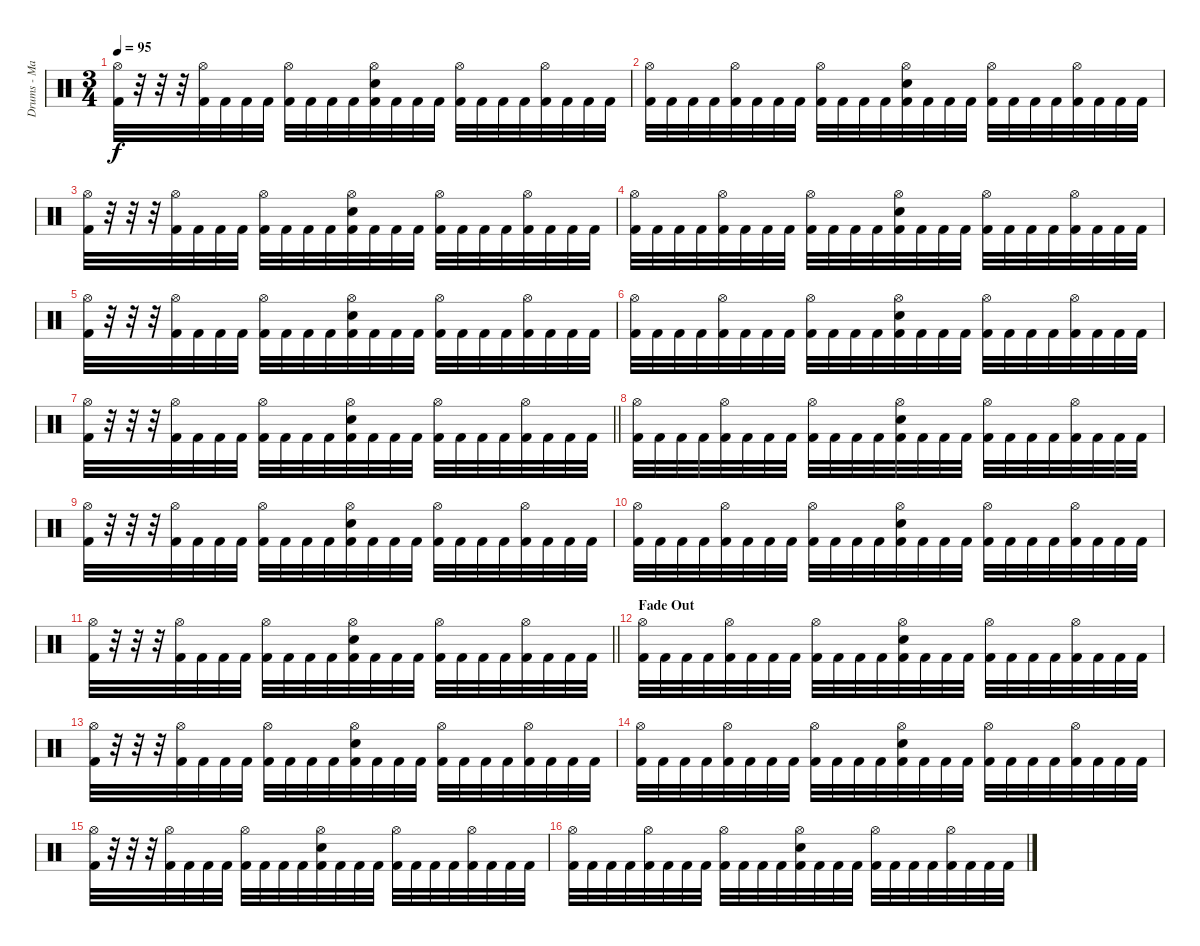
\track ("Drums - Mario Duplantier" "Drums - Ma") {instrument percussion}
\staff {score}
\articulation defaults
\ts (3 4)
\tempo 95
\clef neutral
\ks c
("Hi-Hat (open)" "Kick (hit) 2").32{dy f} r.32 r.32 r.32 ("Hi-Hat (open)" "Kick (hit) 2").32 "Kick (hit) 2".32 "Kick (hit) 2".32 "Kick (hit) 2".32 ("Hi-Hat (open)" "Kick (hit) 2").32 "Kick (hit) 2".32 "Kick (hit) 2".32 "Kick (hit) 2".32 ("Hi-Hat (open)" "Electric Snare (hit)" "Kick (hit) 2").32 "Kick (hit) 2".32 "Kick (hit) 2".32 "Kick (hit) 2".32 ("Hi-Hat (open)" "Kick (hit) 2").32 "Kick (hit) 2".32 "Kick (hit) 2".32 "Kick (hit) 2".32 ("Hi-Hat (open)" "Kick (hit) 2").32 "Kick (hit) 2".32 "Kick (hit) 2".32 "Kick (hit) 2".32 |
("Hi-Hat (open)" "Kick (hit) 2").32 "Kick (hit) 2".32 "Kick (hit) 2".32 "Kick (hit) 2".32 ("Hi-Hat (open)" "Kick (hit) 2").32 "Kick (hit) 2".32 "Kick (hit) 2".32 "Kick (hit) 2".32 ("Hi-Hat (open)" "Kick (hit) 2").32 "Kick (hit) 2".32 "Kick (hit) 2".32 "Kick (hit) 2".32 ("Hi-Hat (open)" "Electric Snare (hit)" "Kick (hit) 2").32 "Kick (hit) 2".32 "Kick (hit) 2".32 "Kick (hit) 2".32 ("Hi-Hat (open)" "Kick (hit) 2").32 "Kick (hit) 2".32 "Kick (hit) 2".32 "Kick (hit) 2".32 ("Hi-Hat (open)" "Kick (hit) 2").32 "Kick (hit) 2".32 "Kick (hit) 2".32 "Kick (hit) 2".32 |
("Hi-Hat (open)" "Kick (hit) 2").32 r.32 r.32 r.32 ("Hi-Hat (open)" "Kick (hit) 2").32 "Kick (hit) 2".32 "Kick (hit) 2".32 "Kick (hit) 2".32 ("Hi-Hat (open)" "Kick (hit) 2").32 "Kick (hit) 2".32 "Kick (hit) 2".32 "Kick (hit) 2".32 ("Hi-Hat (open)" "Electric Snare (hit)" "Kick (hit) 2").32 "Kick (hit) 2".32 "Kick (hit) 2".32 "Kick (hit) 2".32 ("Hi-Hat (open)" "Kick (hit) 2").32 "Kick (hit) 2".32 "Kick (hit) 2".32 "Kick (hit) 2".32 ("Hi-Hat (open)" "Kick (hit) 2").32 "Kick (hit) 2".32 "Kick (hit) 2".32 "Kick (hit) 2".32 |
("Hi-Hat (open)" "Kick (hit) 2").32 "Kick (hit) 2".32 "Kick (hit) 2".32 "Kick (hit) 2".32 ("Hi-Hat (open)" "Kick (hit) 2").32 "Kick (hit) 2".32 "Kick (hit) 2".32 "Kick (hit) 2".32 ("Hi-Hat (open)" "Kick (hit) 2").32 "Kick (hit) 2".32 "Kick (hit) 2".32 "Kick (hit) 2".32 ("Hi-Hat (open)" "Electric Snare (hit)" "Kick (hit) 2").32 "Kick (hit) 2".32 "Kick (hit) 2".32 "Kick (hit) 2".32 ("Hi-Hat (open)" "Kick (hit) 2").32 "Kick (hit) 2".32 "Kick (hit) 2".32 "Kick (hit) 2".32 ("Hi-Hat (open)" "Kick (hit) 2").32 "Kick (hit) 2".32 "Kick (hit) 2".32 "Kick (hit) 2".32 |
("Hi-Hat (open)" "Kick (hit) 2").32 r.32 r.32 r.32 ("Hi-Hat (open)" "Kick (hit) 2").32 "Kick (hit) 2".32 "Kick (hit) 2".32 "Kick (hit) 2".32 ("Hi-Hat (open)" "Kick (hit) 2").32 "Kick (hit) 2".32 "Kick (hit) 2".32 "Kick (hit) 2".32 ("Hi-Hat (open)" "Electric Snare (hit)" "Kick (hit) 2").32 "Kick (hit) 2".32 "Kick (hit) 2".32 "Kick (hit) 2".32 ("Hi-Hat (open)" "Kick (hit) 2").32 "Kick (hit) 2".32 "Kick (hit) 2".32 "Kick (hit) 2".32 ("Hi-Hat (open)" "Kick (hit) 2").32 "Kick (hit) 2".32 "Kick (hit) 2".32 "Kick (hit) 2".32 |
("Hi-Hat (open)" "Kick (hit) 2").32 "Kick (hit) 2".32 "Kick (hit) 2".32 "Kick (hit) 2".32 ("Hi-Hat (open)" "Kick (hit) 2").32 "Kick (hit) 2".32 "Kick (hit) 2".32 "Kick (hit) 2".32 ("Hi-Hat (open)" "Kick (hit) 2").32 "Kick (hit) 2".32 "Kick (hit) 2".32 "Kick (hit) 2".32 ("Hi-Hat (open)" "Electric Snare (hit)" "Kick (hit) 2").32 "Kick (hit) 2".32 "Kick (hit) 2".32 "Kick (hit) 2".32 ("Hi-Hat (open)" "Kick (hit) 2").32 "Kick (hit) 2".32 "Kick (hit) 2".32 "Kick (hit) 2".32 ("Hi-Hat (open)" "Kick (hit) 2").32 "Kick (hit) 2".32 "Kick (hit) 2".32 "Kick (hit) 2".32 |
\barLineRight lightlight
("Hi-Hat (open)" "Kick (hit) 2").32 r.32 r.32 r.32 ("Hi-Hat (open)" "Kick (hit) 2").32 "Kick (hit) 2".32 "Kick (hit) 2".32 "Kick (hit) 2".32 ("Hi-Hat (open)" "Kick (hit) 2").32 "Kick (hit) 2".32 "Kick (hit) 2".32 "Kick (hit) 2".32 ("Hi-Hat (open)" "Electric Snare (hit)" "Kick (hit) 2").32 "Kick (hit) 2".32 "Kick (hit) 2".32 "Kick (hit) 2".32 ("Hi-Hat (open)" "Kick (hit) 2").32 "Kick (hit) 2".32 "Kick (hit) 2".32 "Kick (hit) 2".32 ("Hi-Hat (open)" "Kick (hit) 2").32 "Kick (hit) 2".32 "Kick (hit) 2".32 "Kick (hit) 2".32 |
("Hi-Hat (open)" "Kick (hit) 2").32 "Kick (hit) 2".32 "Kick (hit) 2".32 "Kick (hit) 2".32 ("Hi-Hat (open)" "Kick (hit) 2").32 "Kick (hit) 2".32 "Kick (hit) 2".32 "Kick (hit) 2".32 ("Hi-Hat (open)" "Kick (hit) 2").32 "Kick (hit) 2".32 "Kick (hit) 2".32 "Kick (hit) 2".32 ("Hi-Hat (open)" "Electric Snare (hit)" "Kick (hit) 2").32 "Kick (hit) 2".32 "Kick (hit) 2".32 "Kick (hit) 2".32 ("Hi-Hat (open)" "Kick (hit) 2").32 "Kick (hit) 2".32 "Kick (hit) 2".32 "Kick (hit) 2".32 ("Hi-Hat (open)" "Kick (hit) 2").32 "Kick (hit) 2".32 "Kick (hit) 2".32 "Kick (hit) 2".32 |
("Hi-Hat (open)" "Kick (hit) 2").32 r.32 r.32 r.32 ("Hi-Hat (open)" "Kick (hit) 2").32 "Kick (hit) 2".32 "Kick (hit) 2".32 "Kick (hit) 2".32 ("Hi-Hat (open)" "Kick (hit) 2").32 "Kick (hit) 2".32 "Kick (hit) 2".32 "Kick (hit) 2".32 ("Hi-Hat (open)" "Electric Snare (hit)" "Kick (hit) 2").32 "Kick (hit) 2".32 "Kick (hit) 2".32 "Kick (hit) 2".32 ("Hi-Hat (open)" "Kick (hit) 2").32 "Kick (hit) 2".32 "Kick (hit) 2".32 "Kick (hit) 2".32 ("Hi-Hat (open)" "Kick (hit) 2").32 "Kick (hit) 2".32 "Kick (hit) 2".32 "Kick (hit) 2".32 |
("Hi-Hat (open)" "Kick (hit) 2").32 "Kick (hit) 2".32 "Kick (hit) 2".32 "Kick (hit) 2".32 ("Hi-Hat (open)" "Kick (hit) 2").32 "Kick (hit) 2".32 "Kick (hit) 2".32 "Kick (hit) 2".32 ("Hi-Hat (open)" "Kick (hit) 2").32 "Kick (hit) 2".32 "Kick (hit) 2".32 "Kick (hit) 2".32 ("Hi-Hat (open)" "Electric Snare (hit)" "Kick (hit) 2").32 "Kick (hit) 2".32 "Kick (hit) 2".32 "Kick (hit) 2".32 ("Hi-Hat (open)" "Kick (hit) 2").32 "Kick (hit) 2".32 "Kick (hit) 2".32 "Kick (hit) 2".32 ("Hi-Hat (open)" "Kick (hit) 2").32 "Kick (hit) 2".32 "Kick (hit) 2".32 "Kick (hit) 2".32 |
\barLineRight lightlight
("Hi-Hat (open)" "Kick (hit) 2").32 r.32 r.32 r.32 ("Hi-Hat (open)" "Kick (hit) 2").32 "Kick (hit) 2".32 "Kick (hit) 2".32 "Kick (hit) 2".32 ("Hi-Hat (open)" "Kick (hit) 2").32 "Kick (hit) 2".32 "Kick (hit) 2".32 "Kick (hit) 2".32 ("Hi-Hat (open)" "Electric Snare (hit)" "Kick (hit) 2").32 "Kick (hit) 2".32 "Kick (hit) 2".32 "Kick (hit) 2".32 ("Hi-Hat (open)" "Kick (hit) 2").32 "Kick (hit) 2".32 "Kick (hit) 2".32 "Kick (hit) 2".32 ("Hi-Hat (open)" "Kick (hit) 2").32 "Kick (hit) 2".32 "Kick (hit) 2".32 "Kick (hit) 2".32 |
\section ("" "Fade Out")
("Hi-Hat (open)" "Kick (hit) 2").32{volume 0} "Kick (hit) 2".32 "Kick (hit) 2".32 "Kick (hit) 2".32 ("Hi-Hat (open)" "Kick (hit) 2").32 "Kick (hit) 2".32 "Kick (hit) 2".32 "Kick (hit) 2".32 ("Hi-Hat (open)" "Kick (hit) 2").32 "Kick (hit) 2".32 "Kick (hit) 2".32 "Kick (hit) 2".32 ("Hi-Hat (open)" "Electric Snare (hit)" "Kick (hit) 2").32 "Kick (hit) 2".32 "Kick (hit) 2".32 "Kick (hit) 2".32 ("Hi-Hat (open)" "Kick (hit) 2").32 "Kick (hit) 2".32 "Kick (hit) 2".32 "Kick (hit) 2".32 ("Hi-Hat (open)" "Kick (hit) 2").32 "Kick (hit) 2".32 "Kick (hit) 2".32 "Kick (hit) 2".32 |
("Hi-Hat (open)" "Kick (hit) 2").32 r.32 r.32 r.32 ("Hi-Hat (open)" "Kick (hit) 2").32 "Kick (hit) 2".32 "Kick (hit) 2".32 "Kick (hit) 2".32 ("Hi-Hat (open)" "Kick (hit) 2").32 "Kick (hit) 2".32 "Kick (hit) 2".32 "Kick (hit) 2".32 ("Hi-Hat (open)" "Electric Snare (hit)" "Kick (hit) 2").32 "Kick (hit) 2".32 "Kick (hit) 2".32 "Kick (hit) 2".32 ("Hi-Hat (open)" "Kick (hit) 2").32 "Kick (hit) 2".32 "Kick (hit) 2".32 "Kick (hit) 2".32 ("Hi-Hat (open)" "Kick (hit) 2").32 "Kick (hit) 2".32 "Kick (hit) 2".32 "Kick (hit) 2".32 |
("Hi-Hat (open)" "Kick (hit) 2").32 "Kick (hit) 2".32 "Kick (hit) 2".32 "Kick (hit) 2".32 ("Hi-Hat (open)" "Kick (hit) 2").32 "Kick (hit) 2".32 "Kick (hit) 2".32 "Kick (hit) 2".32 ("Hi-Hat (open)" "Kick (hit) 2").32 "Kick (hit) 2".32 "Kick (hit) 2".32 "Kick (hit) 2".32 ("Hi-Hat (open)" "Electric Snare (hit)" "Kick (hit) 2").32 "Kick (hit) 2".32 "Kick (hit) 2".32 "Kick (hit) 2".32 ("Hi-Hat (open)" "Kick (hit) 2").32 "Kick (hit) 2".32 "Kick (hit) 2".32 "Kick (hit) 2".32 ("Hi-Hat (open)" "Kick (hit) 2").32 "Kick (hit) 2".32 "Kick (hit) 2".32 "Kick (hit) 2".32 |
("Hi-Hat (open)" "Kick (hit) 2").32 r.32 r.32 r.32 ("Hi-Hat (open)" "Kick (hit) 2").32 "Kick (hit) 2".32 "Kick (hit) 2".32 "Kick (hit) 2".32 ("Hi-Hat (open)" "Kick (hit) 2").32 "Kick (hit) 2".32 "Kick (hit) 2".32 "Kick (hit) 2".32 ("Hi-Hat (open)" "Electric Snare (hit)" "Kick (hit) 2").32 "Kick (hit) 2".32 "Kick (hit) 2".32 "Kick (hit) 2".32 ("Hi-Hat (open)" "Kick (hit) 2").32 "Kick (hit) 2".32 "Kick (hit) 2".32 "Kick (hit) 2".32 ("Hi-Hat (open)" "Kick (hit) 2").32 "Kick (hit) 2".32 "Kick (hit) 2".32 "Kick (hit) 2".32 |
("Hi-Hat (open)" "Kick (hit) 2").32 "Kick (hit) 2".32 "Kick (hit) 2".32 "Kick (hit) 2".32 ("Hi-Hat (open)" "Kick (hit) 2").32 "Kick (hit) 2".32 "Kick (hit) 2".32 "Kick (hit) 2".32 ("Hi-Hat (open)" "Kick (hit) 2").32 "Kick (hit) 2".32 "Kick (hit) 2".32 "Kick (hit) 2".32 ("Hi-Hat (open)" "Electric Snare (hit)" "Kick (hit) 2").32 "Kick (hit) 2".32 "Kick (hit) 2".32 "Kick (hit) 2".32 ("Hi-Hat (open)" "Kick (hit) 2").32 "Kick (hit) 2".32 "Kick (hit) 2".32 "Kick (hit) 2".32 ("Hi-Hat (open)" "Kick (hit) 2").32 "Kick (hit) 2".32 "Kick (hit) 2".32 "Kick (hit) 2".32
